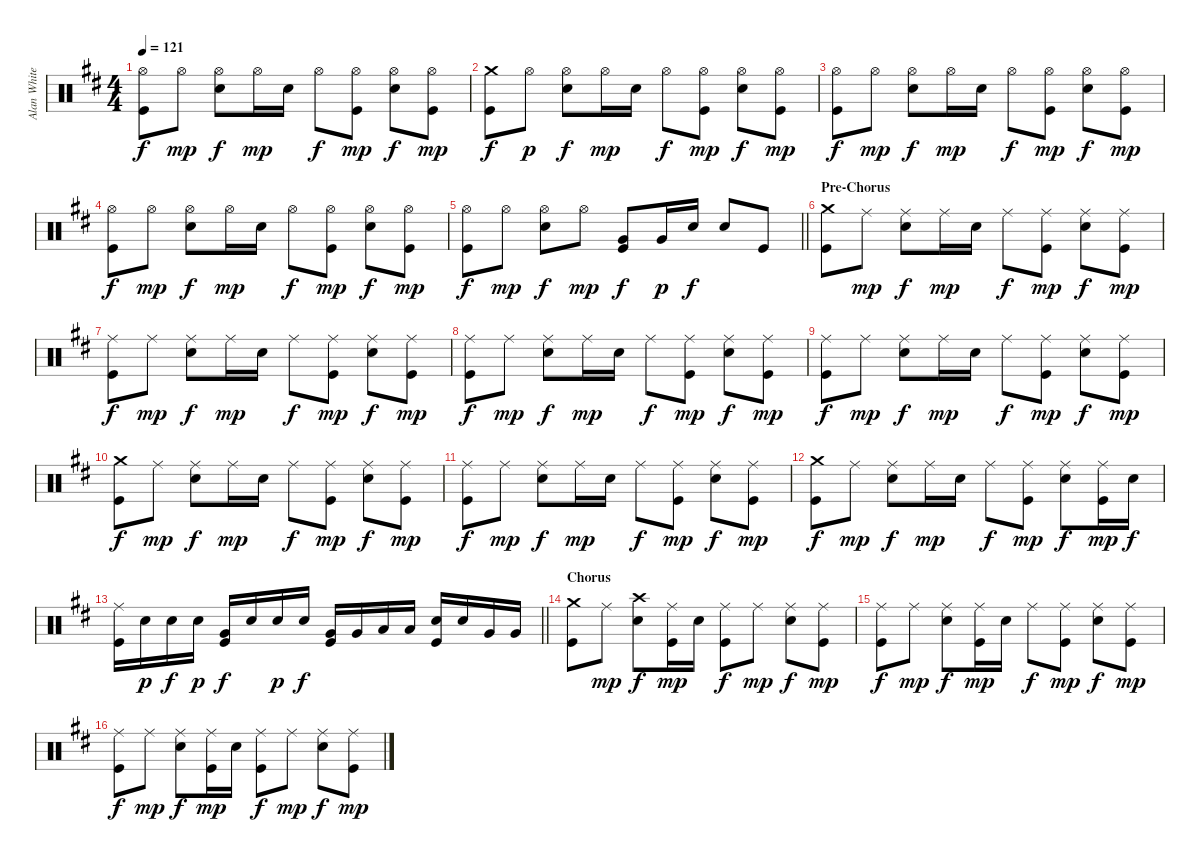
\track ("Alan White" "Alan White") {instrument percussion}
\staff {score}
\articulation defaults
\ts (4 4)
\tempo 121
\clef neutral
\ks d
("Hi-Hat (open)" "Kick (hit)").8{dy f} "Hi-Hat (open)".8{dy mp} ("Hi-Hat (open)" "Electric Snare (hit)").8{dy f} "Hi-Hat (open)".16{dy mp} "Electric Snare (hit)".16 "Hi-Hat (open)".8{dy f} ("Hi-Hat (open)" "Kick (hit)").8{dy mp} ("Hi-Hat (open)" "Electric Snare (hit)").8{dy f} ("Hi-Hat (open)" "Kick (hit)").8{dy mp} |
("Crash medium (hit)" "Kick (hit)").8{dy f} "Hi-Hat (open)".8{dy p} ("Hi-Hat (open)" "Electric Snare (hit)").8{dy f} "Hi-Hat (open)".16{dy mp} "Electric Snare (hit)".16 "Hi-Hat (open)".8{dy f} ("Hi-Hat (open)" "Kick (hit)").8{dy mp} ("Hi-Hat (open)" "Electric Snare (hit)").8{dy f} ("Hi-Hat (open)" "Kick (hit)").8{dy mp} |
("Hi-Hat (open)" "Kick (hit)").8{dy f} "Hi-Hat (open)".8{dy mp} ("Hi-Hat (open)" "Electric Snare (hit)").8{dy f} "Hi-Hat (open)".16{dy mp} "Electric Snare (hit)".16 "Hi-Hat (open)".8{dy f} ("Hi-Hat (open)" "Kick (hit)").8{dy mp} ("Hi-Hat (open)" "Electric Snare (hit)").8{dy f} ("Hi-Hat (open)" "Kick (hit)").8{dy mp} |
("Hi-Hat (open)" "Kick (hit)").8{dy f} "Hi-Hat (open)".8{dy mp} ("Hi-Hat (open)" "Electric Snare (hit)").8{dy f} "Hi-Hat (open)".16{dy mp} "Electric Snare (hit)".16 "Hi-Hat (open)".8{dy f} ("Hi-Hat (open)" "Kick (hit)").8{dy mp} ("Hi-Hat (open)" "Electric Snare (hit)").8{dy f} ("Hi-Hat (open)" "Kick (hit)").8{dy mp} |
\barLineRight lightlight
("Hi-Hat (open)" "Kick (hit)").8{dy f} "Hi-Hat (open)".8{dy mp} ("Hi-Hat (open)" "Electric Snare (hit)").8{dy f} "Hi-Hat (open)".8{dy mp} ("Very Low Tom (hit)" "Kick (hit)").8{dy f} "Very Low Tom (hit)".16{dy p} "Electric Snare (hit)".16{dy f} "Electric Snare (hit)".8 "Kick (hit)".8 |
\section ("" "Pre-Chorus")
("Crash medium (hit)" "Kick (hit)").8 "Ride (middle)".8{dy mp} ("Ride (middle)" "Electric Snare (hit)").8{dy f} "Ride (middle)".16{dy mp} "Electric Snare (hit)".16 "Ride (middle)".8{dy f} ("Ride (middle)" "Kick (hit)").8{dy mp} ("Ride (middle)" "Electric Snare (hit)").8{dy f} ("Ride (middle)" "Kick (hit)").8{dy mp} |
("Ride (middle)" "Kick (hit)").8{dy f} "Ride (middle)".8{dy mp} ("Ride (middle)" "Electric Snare (hit)").8{dy f} "Ride (middle)".16{dy mp} "Electric Snare (hit)".16 "Ride (middle)".8{dy f} ("Ride (middle)" "Kick (hit)").8{dy mp} ("Ride (middle)" "Electric Snare (hit)").8{dy f} ("Ride (middle)" "Kick (hit)").8{dy mp} |
("Ride (middle)" "Kick (hit)").8{dy f} "Ride (middle)".8{dy mp} ("Ride (middle)" "Electric Snare (hit)").8{dy f} "Ride (middle)".16{dy mp} "Electric Snare (hit)".16 "Ride (middle)".8{dy f} ("Ride (middle)" "Kick (hit)").8{dy mp} ("Ride (middle)" "Electric Snare (hit)").8{dy f} ("Ride (middle)" "Kick (hit)").8{dy mp} |
("Ride (middle)" "Kick (hit)").8{dy f} "Ride (middle)".8{dy mp} ("Ride (middle)" "Electric Snare (hit)").8{dy f} "Ride (middle)".16{dy mp} "Electric Snare (hit)".16 "Ride (middle)".8{dy f} ("Ride (middle)" "Kick (hit)").8{dy mp} ("Ride (middle)" "Electric Snare (hit)").8{dy f} ("Ride (middle)" "Kick (hit)").8{dy mp} |
("Crash medium (hit)" "Kick (hit)").8{dy f} "Ride (middle)".8{dy mp} ("Ride (middle)" "Electric Snare (hit)").8{dy f} "Ride (middle)".16{dy mp} "Electric Snare (hit)".16 "Ride (middle)".8{dy f} ("Ride (middle)" "Kick (hit)").8{dy mp} ("Ride (middle)" "Electric Snare (hit)").8{dy f} ("Ride (middle)" "Kick (hit)").8{dy mp} |
("Ride (middle)" "Kick (hit)").8{dy f} "Ride (middle)".8{dy mp} ("Ride (middle)" "Electric Snare (hit)").8{dy f} "Ride (middle)".16{dy mp} "Electric Snare (hit)".16 "Ride (middle)".8{dy f} ("Ride (middle)" "Kick (hit)").8{dy mp} ("Ride (middle)" "Electric Snare (hit)").8{dy f} ("Ride (middle)" "Kick (hit)").8{dy mp} |
("Crash medium (hit)" "Kick (hit)").8{dy f} "Ride (middle)".8{dy mp} ("Ride (middle)" "Electric Snare (hit)").8{dy f} "Ride (middle)".16{dy mp} "Electric Snare (hit)".16 "Ride (middle)".8{dy f} ("Ride (middle)" "Kick (hit)").8{dy mp} ("Ride (middle)" "Electric Snare (hit)").8{dy f} ("Ride (middle)" "Kick (hit)").16{dy mp} "Electric Snare (hit)".16{dy f} |
\barLineRight lightlight
("Ride (middle)" "Kick (hit)").16 "Electric Snare (hit)".16{dy p} "Electric Snare (hit)".16{dy f} "Electric Snare (hit)".16{dy p} ("Very Low Tom (hit)" "Kick (hit)").16{dy f} "Electric Snare (hit)".16 "Electric Snare (hit)".16{dy p} "Electric Snare (hit)".16{dy f} ("Very Low Tom (hit)" "Kick (hit)").16 "Very Low Tom (hit)".16 "Low Floor Tom (hit)".16 "Low Floor Tom (hit)".16 ("Electric Snare (hit)" "Kick (hit)").16 "Electric Snare (hit)".16 "Very Low Tom (hit)".16 "Very Low Tom (hit)".16 |
\section ("" "Chorus")
("Crash medium (hit)" "Kick (hit)").8 "Ride (middle)".8{dy mp} ("Crash high (hit)" "Electric Snare (hit)").8{dy f} ("Ride (middle)" "Kick (hit)").16{dy mp} "Electric Snare (hit)".16 ("Ride (middle)" "Kick (hit)").8{dy f} "Ride (middle)".8{dy mp} ("Ride (middle)" "Electric Snare (hit)").8{dy f} ("Ride (middle)" "Kick (hit)").8{dy mp} |
("Ride (middle)" "Kick (hit)").8{dy f} "Ride (middle)".8{dy mp} ("Ride (middle)" "Electric Snare (hit)").8{dy f} ("Ride (middle)" "Kick (hit)").16{dy mp} "Electric Snare (hit)".16 "Ride (middle)".8{dy f} ("Ride (middle)" "Kick (hit)").8{dy mp} ("Ride (middle)" "Electric Snare (hit)").8{dy f} ("Ride (middle)" "Kick (hit)").8{dy mp} |
("Ride (middle)" "Kick (hit)").8{dy f} "Ride (middle)".8{dy mp} ("Ride (middle)" "Electric Snare (hit)").8{dy f} ("Ride (middle)" "Kick (hit)").16{dy mp} "Electric Snare (hit)".16 ("Ride (middle)" "Kick (hit)").8{dy f} "Ride (middle)".8{dy mp} ("Ride (middle)" "Electric Snare (hit)").8{dy f} ("Ride (middle)" "Kick (hit)").8{dy mp}
